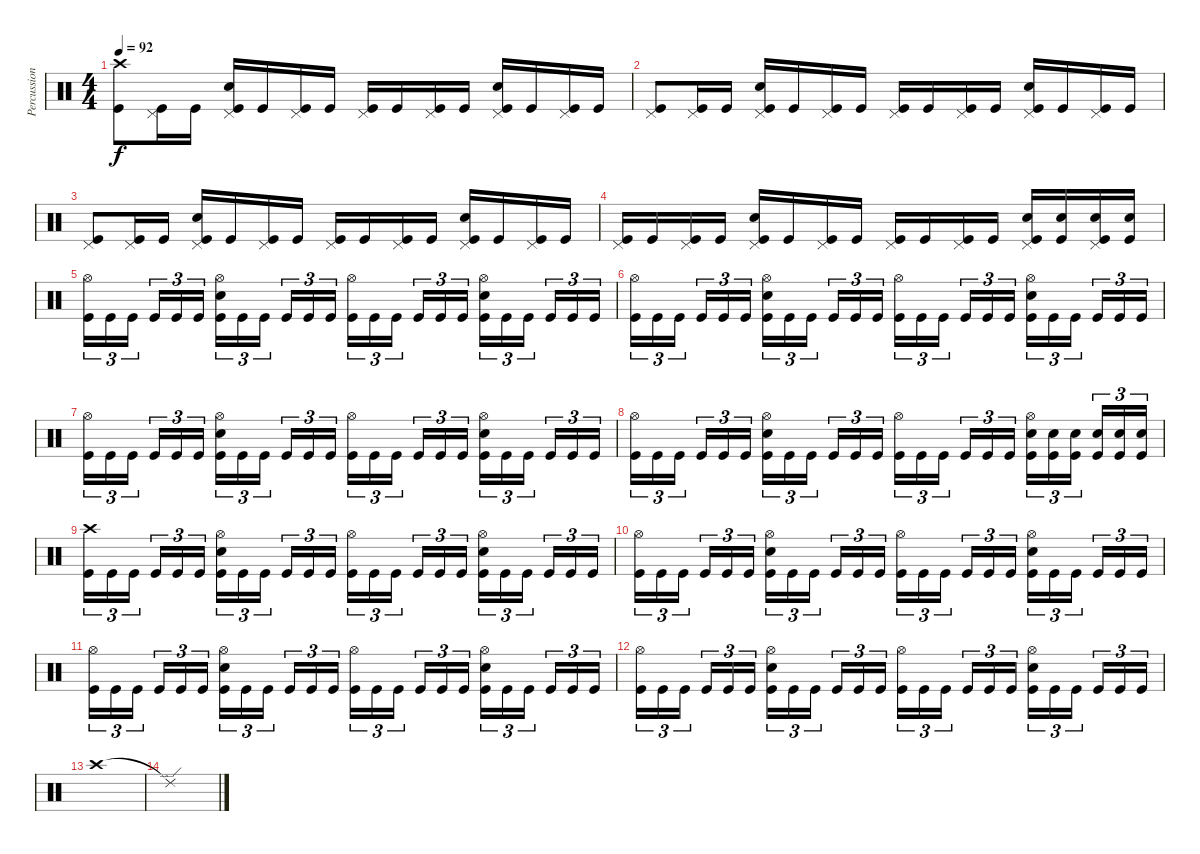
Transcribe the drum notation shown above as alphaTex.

\track ("Percussion" "Percussion") {instrument percussion}
\staff {score}
\articulation defaults
\ts (4 4)
\tempo 92
\clef neutral
\ks c
("Crash high (hit)" "Kick (hit)").8{dy f} ("Pedal Hi-Hat (hit)" "Kick (hit)").16 "Kick (hit)".16 ("Pedal Hi-Hat (hit)" "Electric Snare (hit)" "Kick (hit)").16 "Kick (hit)".16 ("Pedal Hi-Hat (hit)" "Kick (hit)").16 "Kick (hit)".16 ("Pedal Hi-Hat (hit)" "Kick (hit)").16 "Kick (hit)".16 ("Pedal Hi-Hat (hit)" "Kick (hit)").16 "Kick (hit)".16 ("Pedal Hi-Hat (hit)" "Electric Snare (hit)" "Kick (hit)").16 "Kick (hit)".16 ("Pedal Hi-Hat (hit)" "Kick (hit)").16 "Kick (hit)".16 |
("Pedal Hi-Hat (hit)" "Kick (hit)").8 ("Pedal Hi-Hat (hit)" "Kick (hit)").16 "Kick (hit)".16 ("Pedal Hi-Hat (hit)" "Electric Snare (hit)" "Kick (hit)").16 "Kick (hit)".16 ("Pedal Hi-Hat (hit)" "Kick (hit)").16 "Kick (hit)".16 ("Pedal Hi-Hat (hit)" "Kick (hit)").16 "Kick (hit)".16 ("Pedal Hi-Hat (hit)" "Kick (hit)").16 "Kick (hit)".16 ("Pedal Hi-Hat (hit)" "Electric Snare (hit)" "Kick (hit)").16 "Kick (hit)".16 ("Pedal Hi-Hat (hit)" "Kick (hit)").16 "Kick (hit)".16 |
("Pedal Hi-Hat (hit)" "Kick (hit)").8 ("Pedal Hi-Hat (hit)" "Kick (hit)").16 "Kick (hit)".16 ("Pedal Hi-Hat (hit)" "Electric Snare (hit)" "Kick (hit)").16 "Kick (hit)".16 ("Pedal Hi-Hat (hit)" "Kick (hit)").16 "Kick (hit)".16 ("Pedal Hi-Hat (hit)" "Kick (hit)").16 "Kick (hit)".16 ("Pedal Hi-Hat (hit)" "Kick (hit)").16 "Kick (hit)".16 ("Pedal Hi-Hat (hit)" "Electric Snare (hit)" "Kick (hit)").16 "Kick (hit)".16 ("Pedal Hi-Hat (hit)" "Kick (hit)").16 "Kick (hit)".16 |
("Pedal Hi-Hat (hit)" "Kick (hit)").16 "Kick (hit)".16 ("Pedal Hi-Hat (hit)" "Kick (hit)").16 "Kick (hit)".16 ("Pedal Hi-Hat (hit)" "Electric Snare (hit)" "Kick (hit)").16 "Kick (hit)".16 ("Pedal Hi-Hat (hit)" "Kick (hit)").16 "Kick (hit)".16 ("Pedal Hi-Hat (hit)" "Kick (hit)").16 "Kick (hit)".16 ("Pedal Hi-Hat (hit)" "Kick (hit)").16 "Kick (hit)".16 ("Pedal Hi-Hat (hit)" "Electric Snare (hit)" "Kick (hit)").16 ("Electric Snare (hit)" "Kick (hit)").16 ("Pedal Hi-Hat (hit)" "Electric Snare (hit)" "Kick (hit)").16 ("Electric Snare (hit)" "Kick (hit)").16 |
("Hi-Hat (open)" "Kick (hit)").16{tu (3 2)} "Kick (hit)".16{tu (3 2)} "Kick (hit)".16{tu (3 2) beam splitsecondary} "Kick (hit)".16{tu (3 2)} "Kick (hit)".16{tu (3 2)} "Kick (hit)".16{tu (3 2)} ("Hi-Hat (open)" "Electric Snare (hit)" "Kick (hit)").16{tu (3 2)} "Kick (hit)".16{tu (3 2)} "Kick (hit)".16{tu (3 2) beam splitsecondary} "Kick (hit)".16{tu (3 2)} "Kick (hit)".16{tu (3 2)} "Kick (hit)".16{tu (3 2)} ("Hi-Hat (open)" "Kick (hit)").16{tu (3 2)} "Kick (hit)".16{tu (3 2)} "Kick (hit)".16{tu (3 2) beam splitsecondary} "Kick (hit)".16{tu (3 2)} "Kick (hit)".16{tu (3 2)} "Kick (hit)".16{tu (3 2)} ("Hi-Hat (open)" "Electric Snare (hit)" "Kick (hit)").16{tu (3 2)} "Kick (hit)".16{tu (3 2)} "Kick (hit)".16{tu (3 2) beam splitsecondary} "Kick (hit)".16{tu (3 2)} "Kick (hit)".16{tu (3 2)} "Kick (hit)".16{tu (3 2)} |
("Hi-Hat (open)" "Kick (hit)").16{tu (3 2)} "Kick (hit)".16{tu (3 2)} "Kick (hit)".16{tu (3 2) beam splitsecondary} "Kick (hit)".16{tu (3 2)} "Kick (hit)".16{tu (3 2)} "Kick (hit)".16{tu (3 2)} ("Hi-Hat (open)" "Electric Snare (hit)" "Kick (hit)").16{tu (3 2)} "Kick (hit)".16{tu (3 2)} "Kick (hit)".16{tu (3 2) beam splitsecondary} "Kick (hit)".16{tu (3 2)} "Kick (hit)".16{tu (3 2)} "Kick (hit)".16{tu (3 2)} ("Hi-Hat (open)" "Kick (hit)").16{tu (3 2)} "Kick (hit)".16{tu (3 2)} "Kick (hit)".16{tu (3 2) beam splitsecondary} "Kick (hit)".16{tu (3 2)} "Kick (hit)".16{tu (3 2)} "Kick (hit)".16{tu (3 2)} ("Hi-Hat (open)" "Electric Snare (hit)" "Kick (hit)").16{tu (3 2)} "Kick (hit)".16{tu (3 2)} "Kick (hit)".16{tu (3 2) beam splitsecondary} "Kick (hit)".16{tu (3 2)} "Kick (hit)".16{tu (3 2)} "Kick (hit)".16{tu (3 2)} |
("Hi-Hat (open)" "Kick (hit)").16{tu (3 2)} "Kick (hit)".16{tu (3 2)} "Kick (hit)".16{tu (3 2) beam splitsecondary} "Kick (hit)".16{tu (3 2)} "Kick (hit)".16{tu (3 2)} "Kick (hit)".16{tu (3 2)} ("Hi-Hat (open)" "Electric Snare (hit)" "Kick (hit)").16{tu (3 2)} "Kick (hit)".16{tu (3 2)} "Kick (hit)".16{tu (3 2) beam splitsecondary} "Kick (hit)".16{tu (3 2)} "Kick (hit)".16{tu (3 2)} "Kick (hit)".16{tu (3 2)} ("Hi-Hat (open)" "Kick (hit)").16{tu (3 2)} "Kick (hit)".16{tu (3 2)} "Kick (hit)".16{tu (3 2) beam splitsecondary} "Kick (hit)".16{tu (3 2)} "Kick (hit)".16{tu (3 2)} "Kick (hit)".16{tu (3 2)} ("Hi-Hat (open)" "Electric Snare (hit)" "Kick (hit)").16{tu (3 2)} "Kick (hit)".16{tu (3 2)} "Kick (hit)".16{tu (3 2) beam splitsecondary} "Kick (hit)".16{tu (3 2)} "Kick (hit)".16{tu (3 2)} "Kick (hit)".16{tu (3 2)} |
("Hi-Hat (open)" "Kick (hit)").16{tu (3 2)} "Kick (hit)".16{tu (3 2)} "Kick (hit)".16{tu (3 2) beam splitsecondary} "Kick (hit)".16{tu (3 2)} "Kick (hit)".16{tu (3 2)} "Kick (hit)".16{tu (3 2)} ("Hi-Hat (open)" "Electric Snare (hit)" "Kick (hit)").16{tu (3 2)} "Kick (hit)".16{tu (3 2)} "Kick (hit)".16{tu (3 2) beam splitsecondary} "Kick (hit)".16{tu (3 2)} "Kick (hit)".16{tu (3 2)} "Kick (hit)".16{tu (3 2)} ("Hi-Hat (open)" "Kick (hit)").16{tu (3 2)} "Kick (hit)".16{tu (3 2)} "Kick (hit)".16{tu (3 2) beam splitsecondary} "Kick (hit)".16{tu (3 2)} "Kick (hit)".16{tu (3 2)} "Kick (hit)".16{tu (3 2)} ("Hi-Hat (open)" "Electric Snare (hit)" "Kick (hit)").16{tu (3 2)} ("Electric Snare (hit)" "Kick (hit)").16{tu (3 2)} ("Electric Snare (hit)" "Kick (hit)").16{tu (3 2) beam splitsecondary} ("Electric Snare (hit)" "Kick (hit)").16{tu (3 2)} ("Electric Snare (hit)" "Kick (hit)").16{tu (3 2)} ("Electric Snare (hit)" "Kick (hit)").16{tu (3 2)} |
("Crash high (hit)" "Kick (hit)").16{tu (3 2)} "Kick (hit)".16{tu (3 2)} "Kick (hit)".16{tu (3 2) beam splitsecondary} "Kick (hit)".16{tu (3 2)} "Kick (hit)".16{tu (3 2)} "Kick (hit)".16{tu (3 2)} ("Hi-Hat (open)" "Electric Snare (hit)" "Kick (hit)").16{tu (3 2)} "Kick (hit)".16{tu (3 2)} "Kick (hit)".16{tu (3 2) beam splitsecondary} "Kick (hit)".16{tu (3 2)} "Kick (hit)".16{tu (3 2)} "Kick (hit)".16{tu (3 2)} ("Hi-Hat (open)" "Kick (hit)").16{tu (3 2)} "Kick (hit)".16{tu (3 2)} "Kick (hit)".16{tu (3 2) beam splitsecondary} "Kick (hit)".16{tu (3 2)} "Kick (hit)".16{tu (3 2)} "Kick (hit)".16{tu (3 2)} ("Hi-Hat (open)" "Electric Snare (hit)" "Kick (hit)").16{tu (3 2)} "Kick (hit)".16{tu (3 2)} "Kick (hit)".16{tu (3 2) beam splitsecondary} "Kick (hit)".16{tu (3 2)} "Kick (hit)".16{tu (3 2)} "Kick (hit)".16{tu (3 2)} |
("Hi-Hat (open)" "Kick (hit)").16{tu (3 2)} "Kick (hit)".16{tu (3 2)} "Kick (hit)".16{tu (3 2) beam splitsecondary} "Kick (hit)".16{tu (3 2)} "Kick (hit)".16{tu (3 2)} "Kick (hit)".16{tu (3 2)} ("Hi-Hat (open)" "Electric Snare (hit)" "Kick (hit)").16{tu (3 2)} "Kick (hit)".16{tu (3 2)} "Kick (hit)".16{tu (3 2) beam splitsecondary} "Kick (hit)".16{tu (3 2)} "Kick (hit)".16{tu (3 2)} "Kick (hit)".16{tu (3 2)} ("Hi-Hat (open)" "Kick (hit)").16{tu (3 2)} "Kick (hit)".16{tu (3 2)} "Kick (hit)".16{tu (3 2) beam splitsecondary} "Kick (hit)".16{tu (3 2)} "Kick (hit)".16{tu (3 2)} "Kick (hit)".16{tu (3 2)} ("Hi-Hat (open)" "Electric Snare (hit)" "Kick (hit)").16{tu (3 2)} "Kick (hit)".16{tu (3 2)} "Kick (hit)".16{tu (3 2) beam splitsecondary} "Kick (hit)".16{tu (3 2)} "Kick (hit)".16{tu (3 2)} "Kick (hit)".16{tu (3 2)} |
("Hi-Hat (open)" "Kick (hit)").16{tu (3 2)} "Kick (hit)".16{tu (3 2)} "Kick (hit)".16{tu (3 2) beam splitsecondary} "Kick (hit)".16{tu (3 2)} "Kick (hit)".16{tu (3 2)} "Kick (hit)".16{tu (3 2)} ("Hi-Hat (open)" "Electric Snare (hit)" "Kick (hit)").16{tu (3 2)} "Kick (hit)".16{tu (3 2)} "Kick (hit)".16{tu (3 2) beam splitsecondary} "Kick (hit)".16{tu (3 2)} "Kick (hit)".16{tu (3 2)} "Kick (hit)".16{tu (3 2)} ("Hi-Hat (open)" "Kick (hit)").16{tu (3 2)} "Kick (hit)".16{tu (3 2)} "Kick (hit)".16{tu (3 2) beam splitsecondary} "Kick (hit)".16{tu (3 2)} "Kick (hit)".16{tu (3 2)} "Kick (hit)".16{tu (3 2)} ("Hi-Hat (open)" "Electric Snare (hit)" "Kick (hit)").16{tu (3 2)} "Kick (hit)".16{tu (3 2)} "Kick (hit)".16{tu (3 2) beam splitsecondary} "Kick (hit)".16{tu (3 2)} "Kick (hit)".16{tu (3 2)} "Kick (hit)".16{tu (3 2)} |
("Hi-Hat (open)" "Kick (hit)").16{tu (3 2)} "Kick (hit)".16{tu (3 2)} "Kick (hit)".16{tu (3 2) beam splitsecondary} "Kick (hit)".16{tu (3 2)} "Kick (hit)".16{tu (3 2)} "Kick (hit)".16{tu (3 2)} ("Hi-Hat (open)" "Electric Snare (hit)" "Kick (hit)").16{tu (3 2)} "Kick (hit)".16{tu (3 2)} "Kick (hit)".16{tu (3 2) beam splitsecondary} "Kick (hit)".16{tu (3 2)} "Kick (hit)".16{tu (3 2)} "Kick (hit)".16{tu (3 2)} ("Hi-Hat (open)" "Kick (hit)").16{tu (3 2)} "Kick (hit)".16{tu (3 2)} "Kick (hit)".16{tu (3 2) beam splitsecondary} "Kick (hit)".16{tu (3 2)} "Kick (hit)".16{tu (3 2)} "Kick (hit)".16{tu (3 2)} ("Hi-Hat (open)" "Electric Snare (hit)" "Kick (hit)").16{tu (3 2)} "Kick (hit)".16{tu (3 2)} "Kick (hit)".16{tu (3 2) beam splitsecondary} "Kick (hit)".16{tu (3 2)} "Kick (hit)".16{tu (3 2)} "Kick (hit)".16{tu (3 2)} |
"Crash high (hit)".1 |
"Ride (edge) 2"{t}.1
